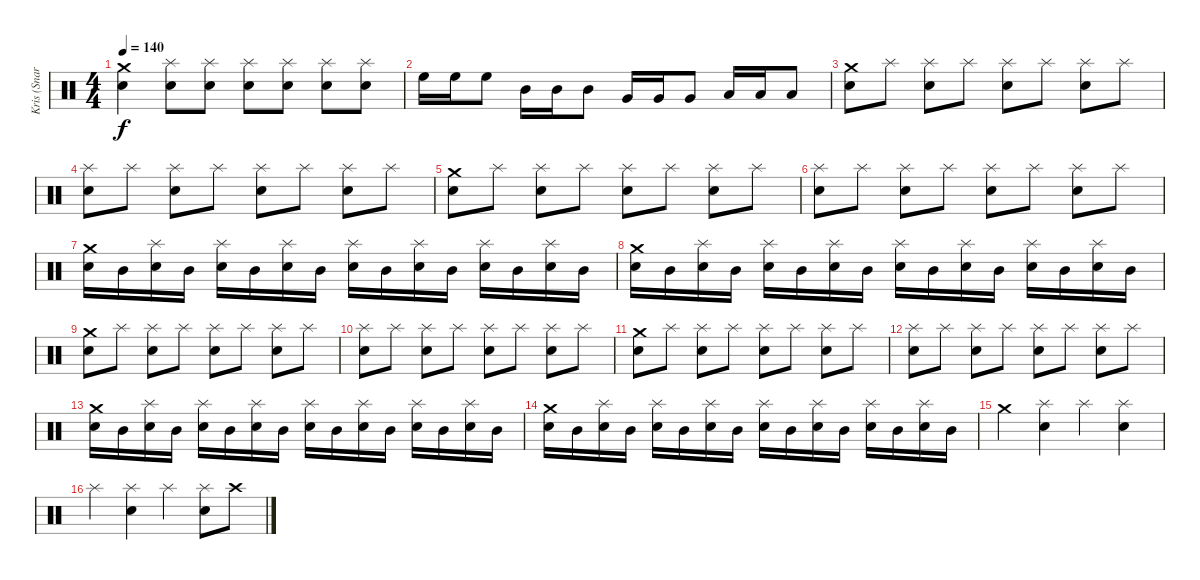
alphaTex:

\track ("Kris (Snares & Toms)" "Kris (Snar") {instrument percussion}
\staff {score}
\articulation defaults
\ts (4 4)
\tempo 140
\clef neutral
\ks c
("Crash medium (hit)" "Electric Snare (hit)").4{dy f} ("Splash (hit)" "Electric Snare (hit)").8 ("Splash (hit)" "Electric Snare (hit)").8 ("Splash (hit)" "Electric Snare (hit)").8 ("Splash (hit)" "Electric Snare (hit)").8 ("Splash (hit)" "Electric Snare (hit)").8 ("Splash (hit)" "Electric Snare (hit)").8 |
"High Floor Tom (hit)".16 "High Floor Tom (hit)".16 "High Floor Tom (hit)".8 "Mid Tom (hit)".16 "Mid Tom (hit)".16 "Mid Tom (hit)".8 "Very Low Tom (hit)".16 "Very Low Tom (hit)".16 "Very Low Tom (hit)".8 "Low Floor Tom (hit)".16 "Low Floor Tom (hit)".16 "Low Floor Tom (hit)".8 |
("Crash medium (hit)" "Electric Snare (hit)").8 "Splash (hit)".8 ("Splash (hit)" "Electric Snare (hit)").8 "Splash (hit)".8 ("Splash (hit)" "Electric Snare (hit)").8 "Splash (hit)".8 ("Splash (hit)" "Electric Snare (hit)").8 "Splash (hit)".8 |
("Splash (hit)" "Electric Snare (hit)").8 "Splash (hit)".8 ("Splash (hit)" "Electric Snare (hit)").8 "Splash (hit)".8 ("Splash (hit)" "Electric Snare (hit)").8 "Splash (hit)".8 ("Splash (hit)" "Electric Snare (hit)").8 "Splash (hit)".8 |
("Crash medium (hit)" "Electric Snare (hit)").8 "Splash (hit)".8 ("Splash (hit)" "Electric Snare (hit)").8 "Splash (hit)".8 ("Splash (hit)" "Electric Snare (hit)").8 "Splash (hit)".8 ("Splash (hit)" "Electric Snare (hit)").8 "Splash (hit)".8 |
("Splash (hit)" "Electric Snare (hit)").8 "Splash (hit)".8 ("Splash (hit)" "Electric Snare (hit)").8 "Splash (hit)".8 ("Splash (hit)" "Electric Snare (hit)").8 "Splash (hit)".8 ("Splash (hit)" "Electric Snare (hit)").8 "Splash (hit)".8 |
("Crash medium (hit)" "Electric Snare (hit)").16 "Mid Tom (hit)".16 ("Splash (hit)" "Electric Snare (hit)").16 "Mid Tom (hit)".16 ("Splash (hit)" "Electric Snare (hit)").16 "Mid Tom (hit)".16 ("Splash (hit)" "Electric Snare (hit)").16 "Mid Tom (hit)".16 ("Splash (hit)" "Electric Snare (hit)").16 "Mid Tom (hit)".16 ("Splash (hit)" "Electric Snare (hit)").16 "Mid Tom (hit)".16 ("Splash (hit)" "Electric Snare (hit)").16 "Mid Tom (hit)".16 ("Splash (hit)" "Electric Snare (hit)").16 "Mid Tom (hit)".16 |
("Crash medium (hit)" "Electric Snare (hit)").16 "Mid Tom (hit)".16 ("Splash (hit)" "Electric Snare (hit)").16 "Mid Tom (hit)".16 ("Splash (hit)" "Electric Snare (hit)").16 "Mid Tom (hit)".16 ("Splash (hit)" "Electric Snare (hit)").16 "Mid Tom (hit)".16 ("Splash (hit)" "Electric Snare (hit)").16 "Mid Tom (hit)".16 ("Splash (hit)" "Electric Snare (hit)").16 "Mid Tom (hit)".16 ("Splash (hit)" "Electric Snare (hit)").16 "Mid Tom (hit)".16 ("Splash (hit)" "Electric Snare (hit)").16 "Mid Tom (hit)".16 |
("Crash medium (hit)" "Electric Snare (hit)").8 "Splash (hit)".8 ("Splash (hit)" "Electric Snare (hit)").8 "Splash (hit)".8 ("Splash (hit)" "Electric Snare (hit)").8 "Splash (hit)".8 ("Splash (hit)" "Electric Snare (hit)").8 "Splash (hit)".8 |
("Splash (hit)" "Electric Snare (hit)").8 "Splash (hit)".8 ("Splash (hit)" "Electric Snare (hit)").8 "Splash (hit)".8 ("Splash (hit)" "Electric Snare (hit)").8 "Splash (hit)".8 ("Splash (hit)" "Electric Snare (hit)").8 "Splash (hit)".8 |
("Crash medium (hit)" "Electric Snare (hit)").8 "Splash (hit)".8 ("Splash (hit)" "Electric Snare (hit)").8 "Splash (hit)".8 ("Splash (hit)" "Electric Snare (hit)").8 "Splash (hit)".8 ("Splash (hit)" "Electric Snare (hit)").8 "Splash (hit)".8 |
("Splash (hit)" "Electric Snare (hit)").8 "Splash (hit)".8 ("Splash (hit)" "Electric Snare (hit)").8 "Splash (hit)".8 ("Splash (hit)" "Electric Snare (hit)").8 "Splash (hit)".8 ("Splash (hit)" "Electric Snare (hit)").8 "Splash (hit)".8 |
("Crash medium (hit)" "Electric Snare (hit)").16 "Mid Tom (hit)".16 ("Splash (hit)" "Electric Snare (hit)").16 "Mid Tom (hit)".16 ("Splash (hit)" "Electric Snare (hit)").16 "Mid Tom (hit)".16 ("Splash (hit)" "Electric Snare (hit)").16 "Mid Tom (hit)".16 ("Splash (hit)" "Electric Snare (hit)").16 "Mid Tom (hit)".16 ("Splash (hit)" "Electric Snare (hit)").16 "Mid Tom (hit)".16 ("Splash (hit)" "Electric Snare (hit)").16 "Mid Tom (hit)".16 ("Splash (hit)" "Electric Snare (hit)").16 "Mid Tom (hit)".16 |
("Crash medium (hit)" "Electric Snare (hit)").16 "Mid Tom (hit)".16 ("Splash (hit)" "Electric Snare (hit)").16 "Mid Tom (hit)".16 ("Splash (hit)" "Electric Snare (hit)").16 "Mid Tom (hit)".16 ("Splash (hit)" "Electric Snare (hit)").16 "Mid Tom (hit)".16 ("Splash (hit)" "Electric Snare (hit)").16 "Mid Tom (hit)".16 ("Splash (hit)" "Electric Snare (hit)").16 "Mid Tom (hit)".16 ("Splash (hit)" "Electric Snare (hit)").16 "Mid Tom (hit)".16 ("Splash (hit)" "Electric Snare (hit)").16 "Mid Tom (hit)".16 |
"Crash medium (hit)".4 ("Splash (hit)" "Electric Snare (hit)").4 "Splash (hit)".4 ("Splash (hit)" "Electric Snare (hit)").4 |
"Splash (hit)".4 ("Splash (hit)" "Electric Snare (hit)").4 "Splash (hit)".4 ("Splash (hit)" "Electric Snare (hit)").8 "Crash high (hit)".8
